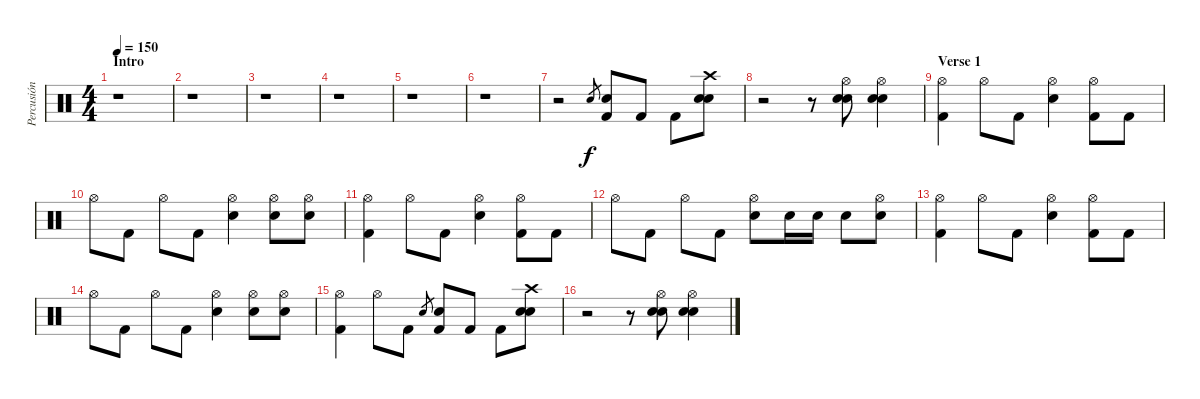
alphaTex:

\track ("Percusión" "Percusión") {instrument percussion}
\staff {score}
\articulation defaults
\ts (4 4)
\section ("" "Intro")
\tempo 150
\clef neutral
\ks c
r.1{dy f} |
r.1 |
r.1 |
r.1 |
r.1 |
r.1 |
r.2 "Electric Snare (hit)".8{gr} ("Electric Snare (hit)" "Kick (hit) 2").8 "Kick (hit) 2".8 "Kick (hit) 2".8 ("Crash high (hit)" "Electric Snare (hit)" "Electric Snare (hit)").8 |
r.2 r.8 ("Hi-Hat (open)" "Electric Snare (hit)" "Electric Snare (hit)").8 ("Hi-Hat (open)" "Electric Snare (hit)" "Electric Snare (hit)").4 |
\section ("" "Verse 1")
("Hi-Hat (open)" "Kick (hit) 2").4 "Hi-Hat (open)".8 "Kick (hit) 2".8 ("Hi-Hat (open)" "Electric Snare (hit)").4 ("Hi-Hat (open)" "Kick (hit) 2").8 "Kick (hit) 2".8 |
"Hi-Hat (open)".8 "Kick (hit) 2".8 "Hi-Hat (open)".8 "Kick (hit) 2".8 ("Hi-Hat (open)" "Electric Snare (hit)").4 ("Hi-Hat (open)" "Electric Snare (hit)").8 ("Hi-Hat (open)" "Electric Snare (hit)").8 |
("Hi-Hat (open)" "Kick (hit) 2").4 "Hi-Hat (open)".8 "Kick (hit) 2".8 ("Hi-Hat (open)" "Electric Snare (hit)").4 ("Hi-Hat (open)" "Kick (hit) 2").8 "Kick (hit) 2".8 |
"Hi-Hat (open)".8 "Kick (hit) 2".8 "Hi-Hat (open)".8 "Kick (hit) 2".8 ("Hi-Hat (open)" "Electric Snare (hit)").8 "Electric Snare (hit)".16 "Electric Snare (hit)".16 "Electric Snare (hit)".8 ("Hi-Hat (open)" "Electric Snare (hit)").8 |
("Hi-Hat (open)" "Kick (hit) 2").4 "Hi-Hat (open)".8 "Kick (hit) 2".8 ("Hi-Hat (open)" "Electric Snare (hit)").4 ("Hi-Hat (open)" "Kick (hit) 2").8 "Kick (hit) 2".8 |
"Hi-Hat (open)".8 "Kick (hit) 2".8 "Hi-Hat (open)".8 "Kick (hit) 2".8 ("Hi-Hat (open)" "Electric Snare (hit)").4 ("Hi-Hat (open)" "Electric Snare (hit)").8 ("Hi-Hat (open)" "Electric Snare (hit)").8 |
("Hi-Hat (open)" "Kick (hit) 2").4 "Hi-Hat (open)".8 "Kick (hit) 2".8 "Electric Snare (hit)".8{gr} ("Electric Snare (hit)" "Kick (hit) 2").8 "Kick (hit) 2".8 "Kick (hit) 2".8 ("Crash high (hit)" "Electric Snare (hit)" "Electric Snare (hit)").8 |
r.2 r.8 ("Hi-Hat (open)" "Electric Snare (hit)" "Electric Snare (hit)").8 ("Hi-Hat (open)" "Electric Snare (hit)" "Electric Snare (hit)").4
